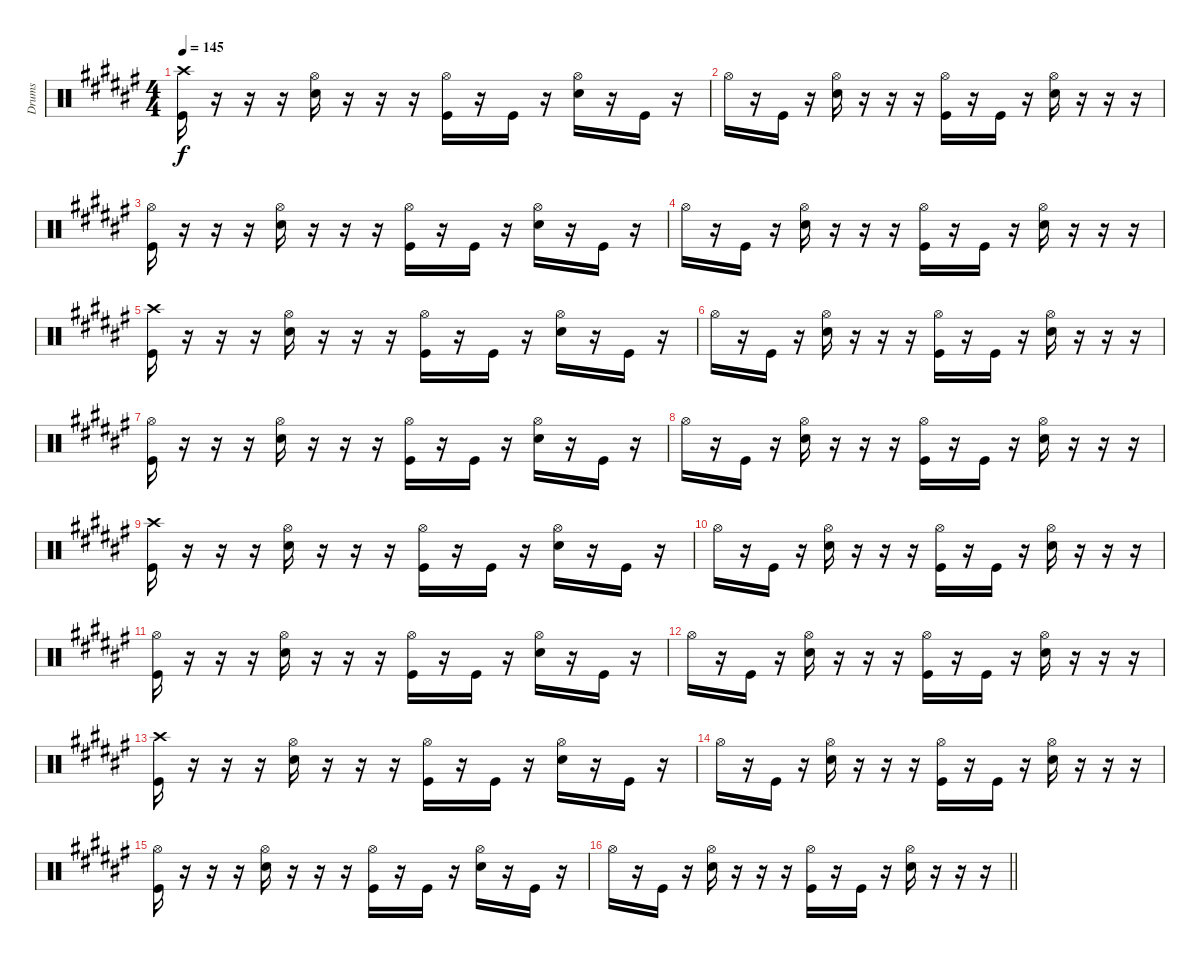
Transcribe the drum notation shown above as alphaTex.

\track ("Drums" "Drums") {instrument percussion}
\staff {score}
\articulation defaults
\ts (4 4)
\tempo 145
\clef neutral
\ks f#
("Kick (hit)" "Crash high (hit)").16{dy f} r.16 r.16 r.16 ("Hi-Hat (open)" "Snare (hit) 2").16 r.16 r.16 r.16 ("Hi-Hat (open)" "Kick (hit)").16 r.16 "Kick (hit)".16 r.16 ("Hi-Hat (open)" "Snare (hit) 2").16 r.16 "Kick (hit)".16 r.16 |
"Hi-Hat (open)".16 r.16 "Kick (hit)".16 r.16 ("Hi-Hat (open)" "Snare (hit) 2").16 r.16 r.16 r.16 ("Hi-Hat (open)" "Kick (hit)").16 r.16 "Kick (hit)".16 r.16 ("Hi-Hat (open)" "Snare (hit) 2").16 r.16 r.16 r.16 |
("Hi-Hat (open)" "Kick (hit)").16 r.16 r.16 r.16 ("Hi-Hat (open)" "Snare (hit) 2").16 r.16 r.16 r.16 ("Hi-Hat (open)" "Kick (hit)").16 r.16 "Kick (hit)".16 r.16 ("Hi-Hat (open)" "Snare (hit) 2").16 r.16 "Kick (hit)".16 r.16 |
"Hi-Hat (open)".16 r.16 "Kick (hit)".16 r.16 ("Hi-Hat (open)" "Snare (hit) 2").16 r.16 r.16 r.16 ("Hi-Hat (open)" "Kick (hit)").16 r.16 "Kick (hit)".16 r.16 ("Hi-Hat (open)" "Snare (hit) 2").16 r.16 r.16 r.16 |
("Kick (hit)" "Crash high (hit)").16 r.16 r.16 r.16 ("Hi-Hat (open)" "Snare (hit) 2").16 r.16 r.16 r.16 ("Hi-Hat (open)" "Kick (hit)").16 r.16 "Kick (hit)".16 r.16 ("Hi-Hat (open)" "Snare (hit) 2").16 r.16 "Kick (hit)".16 r.16 |
"Hi-Hat (open)".16 r.16 "Kick (hit)".16 r.16 ("Hi-Hat (open)" "Snare (hit) 2").16 r.16 r.16 r.16 ("Hi-Hat (open)" "Kick (hit)").16 r.16 "Kick (hit)".16 r.16 ("Hi-Hat (open)" "Snare (hit) 2").16 r.16 r.16 r.16 |
("Hi-Hat (open)" "Kick (hit)").16 r.16 r.16 r.16 ("Hi-Hat (open)" "Snare (hit) 2").16 r.16 r.16 r.16 ("Hi-Hat (open)" "Kick (hit)").16 r.16 "Kick (hit)".16 r.16 ("Hi-Hat (open)" "Snare (hit) 2").16 r.16 "Kick (hit)".16 r.16 |
"Hi-Hat (open)".16 r.16 "Kick (hit)".16 r.16 ("Hi-Hat (open)" "Snare (hit) 2").16 r.16 r.16 r.16 ("Hi-Hat (open)" "Kick (hit)").16 r.16 "Kick (hit)".16 r.16 ("Hi-Hat (open)" "Snare (hit) 2").16 r.16 r.16 r.16 |
("Kick (hit)" "Crash high (hit)").16 r.16 r.16 r.16 ("Hi-Hat (open)" "Snare (hit) 2").16 r.16 r.16 r.16 ("Hi-Hat (open)" "Kick (hit)").16 r.16 "Kick (hit)".16 r.16 ("Hi-Hat (open)" "Snare (hit) 2").16 r.16 "Kick (hit)".16 r.16 |
"Hi-Hat (open)".16 r.16 "Kick (hit)".16 r.16 ("Hi-Hat (open)" "Snare (hit) 2").16 r.16 r.16 r.16 ("Hi-Hat (open)" "Kick (hit)").16 r.16 "Kick (hit)".16 r.16 ("Hi-Hat (open)" "Snare (hit) 2").16 r.16 r.16 r.16 |
("Hi-Hat (open)" "Kick (hit)").16 r.16 r.16 r.16 ("Hi-Hat (open)" "Snare (hit) 2").16 r.16 r.16 r.16 ("Hi-Hat (open)" "Kick (hit)").16 r.16 "Kick (hit)".16 r.16 ("Hi-Hat (open)" "Snare (hit) 2").16 r.16 "Kick (hit)".16 r.16 |
"Hi-Hat (open)".16 r.16 "Kick (hit)".16 r.16 ("Hi-Hat (open)" "Snare (hit) 2").16 r.16 r.16 r.16 ("Hi-Hat (open)" "Kick (hit)").16 r.16 "Kick (hit)".16 r.16 ("Hi-Hat (open)" "Snare (hit) 2").16 r.16 r.16 r.16 |
("Kick (hit)" "Crash high (hit)").16 r.16 r.16 r.16 ("Hi-Hat (open)" "Snare (hit) 2").16 r.16 r.16 r.16 ("Hi-Hat (open)" "Kick (hit)").16 r.16 "Kick (hit)".16 r.16 ("Hi-Hat (open)" "Snare (hit) 2").16 r.16 "Kick (hit)".16 r.16 |
"Hi-Hat (open)".16 r.16 "Kick (hit)".16 r.16 ("Hi-Hat (open)" "Snare (hit) 2").16 r.16 r.16 r.16 ("Hi-Hat (open)" "Kick (hit)").16 r.16 "Kick (hit)".16 r.16 ("Hi-Hat (open)" "Snare (hit) 2").16 r.16 r.16 r.16 |
("Hi-Hat (open)" "Kick (hit)").16 r.16 r.16 r.16 ("Hi-Hat (open)" "Snare (hit) 2").16 r.16 r.16 r.16 ("Hi-Hat (open)" "Kick (hit)").16 r.16 "Kick (hit)".16 r.16 ("Hi-Hat (open)" "Snare (hit) 2").16 r.16 "Kick (hit)".16 r.16 |
\barLineRight lightlight "Hi-Hat (open)".16
r.16 "Kick (hit)".16 r.16 ("Hi-Hat (open)" "Snare (hit) 2").16 r.16 r.16 r.16 ("Hi-Hat (open)" "Kick (hit)").16 r.16 "Kick (hit)".16 r.16 ("Hi-Hat (open)" "Snare (hit) 2").16 r.16 r.16 r.16
